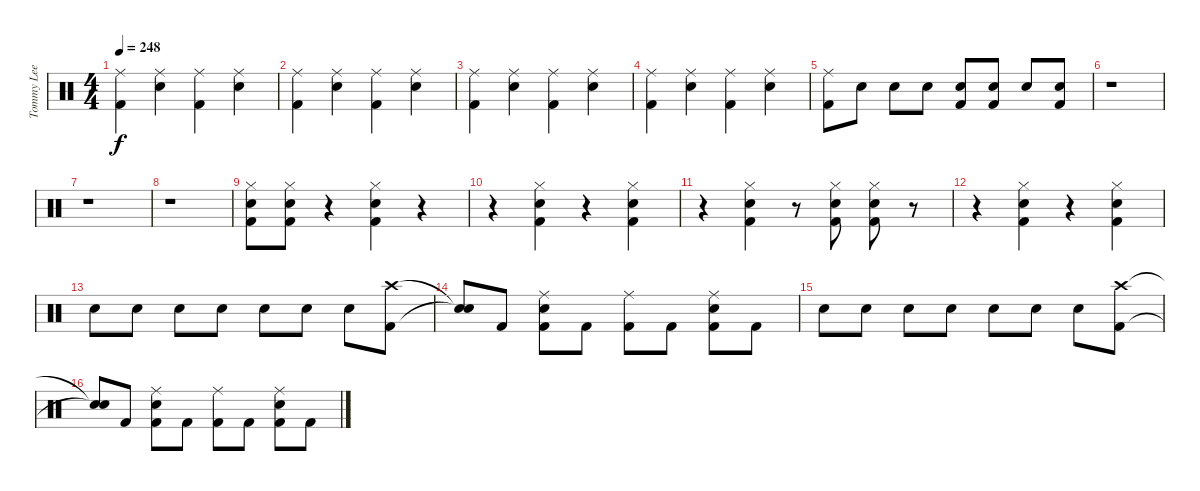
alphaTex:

\track ("Tommy Lee" "Tommy Lee") {instrument percussion}
\staff {score}
\articulation defaults
\ts (4 4)
\tempo 248
\clef neutral
\ks c
("Ride (middle)" "Kick (hit) 2").4{dy f} ("Ride (middle)" "Electric Snare (hit)").4 ("Ride (middle)" "Kick (hit) 2").4 ("Ride (middle)" "Electric Snare (hit)").4 |
("Ride (middle)" "Kick (hit) 2").4 ("Ride (middle)" "Electric Snare (hit)").4 ("Ride (middle)" "Kick (hit) 2").4 ("Ride (middle)" "Electric Snare (hit)").4 |
("Ride (middle)" "Kick (hit) 2").4 ("Ride (middle)" "Electric Snare (hit)").4 ("Ride (middle)" "Kick (hit) 2").4 ("Ride (middle)" "Electric Snare (hit)").4 |
("Ride (middle)" "Kick (hit) 2").4 ("Ride (middle)" "Electric Snare (hit)").4 ("Ride (middle)" "Kick (hit) 2").4 ("Ride (middle)" "Electric Snare (hit)").4 |
("Ride (middle)" "Kick (hit) 2").8 "Electric Snare (hit)".8 "Electric Snare (hit)".8 "Electric Snare (hit)".8 ("Electric Snare (hit)" "Kick (hit) 2").8 ("Electric Snare (hit)" "Kick (hit) 2").8 "Electric Snare (hit)".8 ("Electric Snare (hit)" "Kick (hit) 2").8 |
r.1 |
r.1 |
r.1 |
("Hi-Hat (closed)" "Electric Snare (hit)" "Kick (hit) 2").8 ("Hi-Hat (closed)" "Electric Snare (hit)" "Kick (hit) 2").8 r.4 ("Hi-Hat (closed)" "Electric Snare (hit)" "Kick (hit) 2").4 r.4 |
r.4 ("Hi-Hat (closed)" "Electric Snare (hit)" "Kick (hit) 2").4 r.4 ("Hi-Hat (closed)" "Electric Snare (hit)" "Kick (hit) 2").4 |
r.4 ("Hi-Hat (closed)" "Electric Snare (hit)" "Kick (hit) 2").4 r.8 ("Hi-Hat (closed)" "Electric Snare (hit)" "Kick (hit) 2").8 ("Hi-Hat (closed)" "Electric Snare (hit)" "Kick (hit) 2").8 r.8 |
r.4 ("Hi-Hat (closed)" "Electric Snare (hit)" "Kick (hit) 2").4 r.4 ("Hi-Hat (closed)" "Electric Snare (hit)" "Kick (hit) 2").4 |
"Electric Snare (hit)".8 "Electric Snare (hit)".8 "Electric Snare (hit)".8 "Electric Snare (hit)".8 "Electric Snare (hit)".8 "Electric Snare (hit)".8 "Electric Snare (hit)".8 ("Crash high (hit)" "Kick (hit) 2").8 |
("Snare (hit)"{t} "Snare (hit)"{t}).8 "Kick (hit) 2".8 ("Ride (middle)" "Electric Snare (hit)" "Kick (hit) 2").8 "Kick (hit) 2".8 ("Ride (middle)" "Kick (hit) 2").8 "Kick (hit) 2".8 ("Ride (middle)" "Electric Snare (hit)" "Kick (hit) 2").8 "Kick (hit) 2".8 |
"Electric Snare (hit)".8 "Electric Snare (hit)".8 "Electric Snare (hit)".8 "Electric Snare (hit)".8 "Electric Snare (hit)".8 "Electric Snare (hit)".8 "Electric Snare (hit)".8 ("Crash high (hit)" "Kick (hit) 2").8 |
("Snare (hit)"{t} "Snare (hit)"{t}).8 "Kick (hit) 2".8 ("Ride (middle)" "Electric Snare (hit)" "Kick (hit) 2").8 "Kick (hit) 2".8 ("Ride (middle)" "Kick (hit) 2").8 "Kick (hit) 2".8 ("Ride (middle)" "Electric Snare (hit)" "Kick (hit) 2").8 "Kick (hit) 2".8
